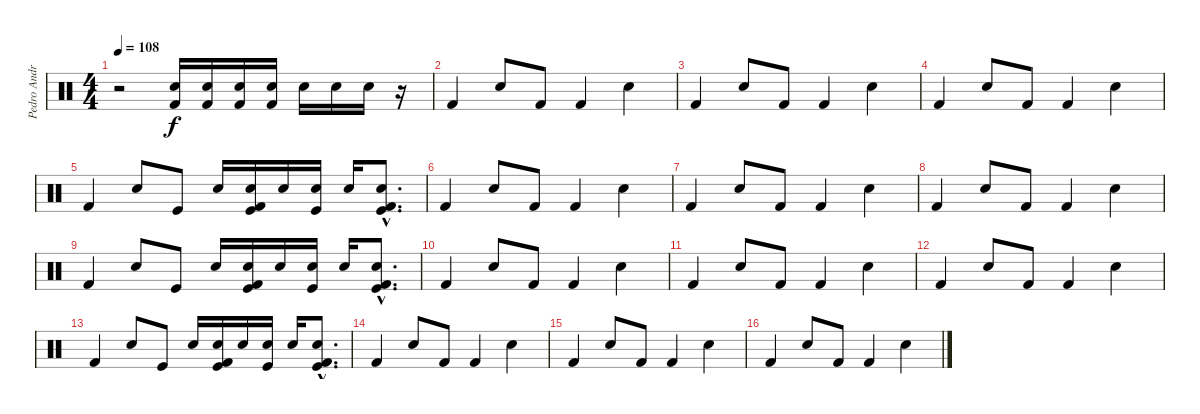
\track ("Pedro Andreu" "Pedro Andr") {instrument percussion}
\staff {score}
\articulation defaults
\ts (4 4)
\tempo 108
\clef neutral
\ks c
r.2{dy f} ("Snare (hit) 2" "Kick (hit) 2").16 ("Snare (hit) 2" "Kick (hit) 2").16 ("Snare (hit) 2" "Kick (hit) 2").16 ("Snare (hit) 2" "Kick (hit) 2").16 "Snare (hit) 2".16 "Snare (hit) 2".16 "Snare (hit) 2".16 r.16 |
"Kick (hit) 2".4 "Snare (hit) 2".8 "Kick (hit) 2".8 "Kick (hit) 2".4 "Snare (hit) 2".4 |
"Kick (hit) 2".4 "Snare (hit) 2".8 "Kick (hit) 2".8 "Kick (hit) 2".4 "Snare (hit) 2".4 |
"Kick (hit) 2".4 "Snare (hit) 2".8 "Kick (hit) 2".8 "Kick (hit) 2".4 "Snare (hit) 2".4 |
"Kick (hit) 2".4 "Snare (hit) 2".8 "Kick (hit)".8 "Snare (hit) 2".16 ("Snare (hit) 2" "Kick (hit) 2" "Kick (hit)").16 "Snare (hit) 2".16 ("Snare (hit) 2" "Kick (hit)").16 "Snare (hit) 2".16 ("Snare (hit) 2"{hac} "Kick (hit)"{hac} "Kick (hit) 2"{hac}).8{d} |
"Kick (hit) 2".4 "Snare (hit) 2".8 "Kick (hit) 2".8 "Kick (hit) 2".4 "Snare (hit) 2".4 |
"Kick (hit) 2".4 "Snare (hit) 2".8 "Kick (hit) 2".8 "Kick (hit) 2".4 "Snare (hit) 2".4 |
"Kick (hit) 2".4 "Snare (hit) 2".8 "Kick (hit) 2".8 "Kick (hit) 2".4 "Snare (hit) 2".4 |
"Kick (hit) 2".4 "Snare (hit) 2".8 "Kick (hit)".8 "Snare (hit) 2".16 ("Snare (hit) 2" "Kick (hit) 2" "Kick (hit)").16 "Snare (hit) 2".16 ("Snare (hit) 2" "Kick (hit)").16 "Snare (hit) 2".16 ("Snare (hit) 2"{hac} "Kick (hit)"{hac} "Kick (hit) 2"{hac}).8{d} |
"Kick (hit) 2".4 "Snare (hit) 2".8 "Kick (hit) 2".8 "Kick (hit) 2".4 "Snare (hit) 2".4 |
"Kick (hit) 2".4 "Snare (hit) 2".8 "Kick (hit) 2".8 "Kick (hit) 2".4 "Snare (hit) 2".4 |
"Kick (hit) 2".4 "Snare (hit) 2".8 "Kick (hit) 2".8 "Kick (hit) 2".4 "Snare (hit) 2".4 |
"Kick (hit) 2".4 "Snare (hit) 2".8 "Kick (hit)".8 "Snare (hit) 2".16 ("Snare (hit) 2" "Kick (hit) 2" "Kick (hit)").16 "Snare (hit) 2".16 ("Snare (hit) 2" "Kick (hit)").16 "Snare (hit) 2".16 ("Snare (hit) 2"{hac} "Kick (hit)"{hac} "Kick (hit) 2"{hac}).8{d} |
"Kick (hit) 2".4 "Snare (hit) 2".8 "Kick (hit) 2".8 "Kick (hit) 2".4 "Snare (hit) 2".4 |
"Kick (hit) 2".4 "Snare (hit) 2".8 "Kick (hit) 2".8 "Kick (hit) 2".4 "Snare (hit) 2".4 |
"Kick (hit) 2".4 "Snare (hit) 2".8 "Kick (hit) 2".8 "Kick (hit) 2".4 "Snare (hit) 2".4
